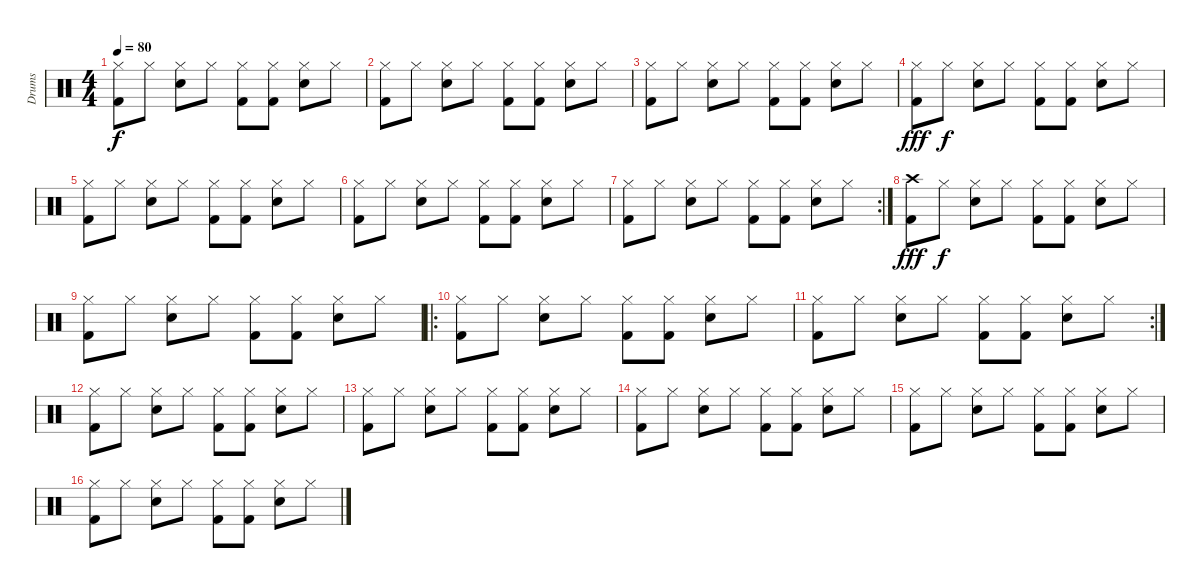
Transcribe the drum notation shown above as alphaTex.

\track ("Drums" "Drums") {instrument percussion}
\staff {score}
\articulation defaults
\ts (4 4)
\tempo 80
\clef neutral
\ks c
("Hi-Hat (closed)" "Kick (hit) 2").8{dy f} "Hi-Hat (closed)".8 ("Hi-Hat (closed)" "Electric Snare (hit)").8 "Hi-Hat (closed)".8 ("Hi-Hat (closed)" "Kick (hit) 2").8 ("Hi-Hat (closed)" "Kick (hit) 2").8 ("Hi-Hat (closed)" "Electric Snare (hit)").8 "Hi-Hat (closed)".8 |
("Hi-Hat (closed)" "Kick (hit) 2").8 "Hi-Hat (closed)".8 ("Hi-Hat (closed)" "Electric Snare (hit)").8 "Hi-Hat (closed)".8 ("Hi-Hat (closed)" "Kick (hit) 2").8 ("Hi-Hat (closed)" "Kick (hit) 2").8 ("Hi-Hat (closed)" "Electric Snare (hit)").8 "Hi-Hat (closed)".8 |
("Hi-Hat (closed)" "Kick (hit) 2").8 "Hi-Hat (closed)".8 ("Hi-Hat (closed)" "Electric Snare (hit)").8 "Hi-Hat (closed)".8 ("Hi-Hat (closed)" "Kick (hit) 2").8 ("Hi-Hat (closed)" "Kick (hit) 2").8 ("Hi-Hat (closed)" "Electric Snare (hit)").8 "Hi-Hat (closed)".8 |
("Hi-Hat (closed)" "Kick (hit) 2").8{dy fff} "Hi-Hat (closed)".8{dy f} ("Hi-Hat (closed)" "Electric Snare (hit)").8 "Hi-Hat (closed)".8 ("Hi-Hat (closed)" "Kick (hit) 2").8 ("Hi-Hat (closed)" "Kick (hit) 2").8 ("Hi-Hat (closed)" "Electric Snare (hit)").8 "Hi-Hat (closed)".8 |
("Hi-Hat (closed)" "Kick (hit) 2").8 "Hi-Hat (closed)".8 ("Hi-Hat (closed)" "Electric Snare (hit)").8 "Hi-Hat (closed)".8 ("Hi-Hat (closed)" "Kick (hit) 2").8 ("Hi-Hat (closed)" "Kick (hit) 2").8 ("Hi-Hat (closed)" "Electric Snare (hit)").8 "Hi-Hat (closed)".8 |
("Hi-Hat (closed)" "Kick (hit) 2").8 "Hi-Hat (closed)".8 ("Hi-Hat (closed)" "Electric Snare (hit)").8 "Hi-Hat (closed)".8 ("Hi-Hat (closed)" "Kick (hit) 2").8 ("Hi-Hat (closed)" "Kick (hit) 2").8 ("Hi-Hat (closed)" "Electric Snare (hit)").8 "Hi-Hat (closed)".8 |
\rc 2
("Hi-Hat (closed)" "Kick (hit) 2").8 "Hi-Hat (closed)".8 ("Hi-Hat (closed)" "Electric Snare (hit)").8 "Hi-Hat (closed)".8 ("Hi-Hat (closed)" "Kick (hit) 2").8 ("Hi-Hat (closed)" "Kick (hit) 2").8 ("Hi-Hat (closed)" "Electric Snare (hit)").8 "Hi-Hat (closed)".8 |
("Crash high (hit)" "Kick (hit) 2").8{dy fff} "Hi-Hat (closed)".8{dy f} ("Hi-Hat (closed)" "Electric Snare (hit)").8 "Hi-Hat (closed)".8 ("Hi-Hat (closed)" "Kick (hit) 2").8 ("Hi-Hat (closed)" "Kick (hit) 2").8 ("Hi-Hat (closed)" "Electric Snare (hit)").8 "Hi-Hat (closed)".8 |
("Hi-Hat (closed)" "Kick (hit) 2").8 "Hi-Hat (closed)".8 ("Hi-Hat (closed)" "Electric Snare (hit)").8 "Hi-Hat (closed)".8 ("Hi-Hat (closed)" "Kick (hit) 2").8 ("Hi-Hat (closed)" "Kick (hit) 2").8 ("Hi-Hat (closed)" "Electric Snare (hit)").8 "Hi-Hat (closed)".8 |
\ro
("Hi-Hat (closed)" "Kick (hit) 2").8 "Hi-Hat (closed)".8 ("Hi-Hat (closed)" "Electric Snare (hit)").8 "Hi-Hat (closed)".8 ("Hi-Hat (closed)" "Kick (hit) 2").8 ("Hi-Hat (closed)" "Kick (hit) 2").8 ("Hi-Hat (closed)" "Electric Snare (hit)").8 "Hi-Hat (closed)".8 |
\rc 2
("Hi-Hat (closed)" "Kick (hit) 2").8 "Hi-Hat (closed)".8 ("Hi-Hat (closed)" "Electric Snare (hit)").8 "Hi-Hat (closed)".8 ("Hi-Hat (closed)" "Kick (hit) 2").8 ("Hi-Hat (closed)" "Kick (hit) 2").8 ("Hi-Hat (closed)" "Electric Snare (hit)").8 "Hi-Hat (closed)".8 |
("Hi-Hat (closed)" "Kick (hit) 2").8 "Hi-Hat (closed)".8 ("Hi-Hat (closed)" "Electric Snare (hit)").8 "Hi-Hat (closed)".8 ("Hi-Hat (closed)" "Kick (hit) 2").8 ("Hi-Hat (closed)" "Kick (hit) 2").8 ("Hi-Hat (closed)" "Electric Snare (hit)").8 "Hi-Hat (closed)".8 |
("Hi-Hat (closed)" "Kick (hit) 2").8 "Hi-Hat (closed)".8 ("Hi-Hat (closed)" "Electric Snare (hit)").8 "Hi-Hat (closed)".8 ("Hi-Hat (closed)" "Kick (hit) 2").8 ("Hi-Hat (closed)" "Kick (hit) 2").8 ("Hi-Hat (closed)" "Electric Snare (hit)").8 "Hi-Hat (closed)".8 |
("Hi-Hat (closed)" "Kick (hit) 2").8 "Hi-Hat (closed)".8 ("Hi-Hat (closed)" "Electric Snare (hit)").8 "Hi-Hat (closed)".8 ("Hi-Hat (closed)" "Kick (hit) 2").8 ("Hi-Hat (closed)" "Kick (hit) 2").8 ("Hi-Hat (closed)" "Electric Snare (hit)").8 "Hi-Hat (closed)".8 |
("Hi-Hat (closed)" "Kick (hit) 2").8 "Hi-Hat (closed)".8 ("Hi-Hat (closed)" "Electric Snare (hit)").8 "Hi-Hat (closed)".8 ("Hi-Hat (closed)" "Kick (hit) 2").8 ("Hi-Hat (closed)" "Kick (hit) 2").8 ("Hi-Hat (closed)" "Electric Snare (hit)").8 "Hi-Hat (closed)".8 |
("Hi-Hat (closed)" "Kick (hit) 2").8 "Hi-Hat (closed)".8 ("Hi-Hat (closed)" "Electric Snare (hit)").8 "Hi-Hat (closed)".8 ("Hi-Hat (closed)" "Kick (hit) 2").8 ("Hi-Hat (closed)" "Kick (hit) 2").8 ("Hi-Hat (closed)" "Electric Snare (hit)").8 "Hi-Hat (closed)".8
